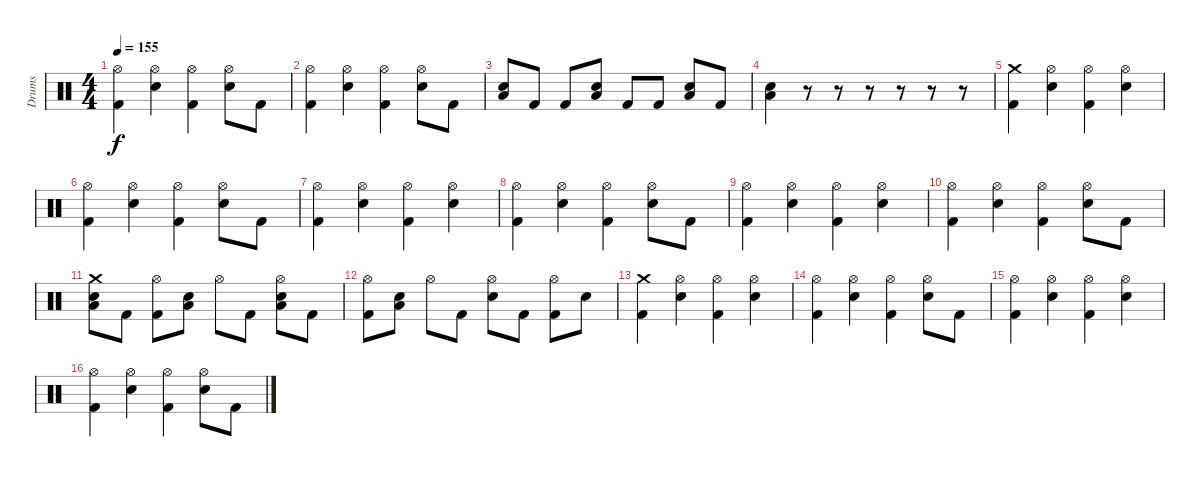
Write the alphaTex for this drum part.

\track ("Drums" "Drums") {instrument percussion}
\staff {score}
\articulation defaults
\ts (4 4)
\tempo 155
\clef neutral
\ks c
("Hi-Hat (open)" "Kick (hit) 2").4{dy f} ("Hi-Hat (open)" "Snare (hit) 2").4 ("Hi-Hat (open)" "Kick (hit) 2").4 ("Hi-Hat (open)" "Snare (hit) 2").8 "Kick (hit) 2".8 |
("Hi-Hat (open)" "Kick (hit) 2").4 ("Hi-Hat (open)" "Snare (hit) 2").4 ("Hi-Hat (open)" "Kick (hit) 2").4 ("Hi-Hat (open)" "Snare (hit) 2").8 "Kick (hit) 2".8 |
("Snare (hit) 2" "Low Floor Tom (hit)").8 "Kick (hit) 2".8 "Kick (hit) 2".8 ("Snare (hit) 2" "Low Floor Tom (hit)").8 "Kick (hit) 2".8 "Kick (hit) 2".8 ("Snare (hit) 2" "Low Floor Tom (hit)").8 "Kick (hit) 2".8 |
("Snare (hit) 2" "Low Floor Tom (hit)").4 r.8 r.8 r.8 r.8 r.8 r.8 |
("Crash medium (hit)" "Kick (hit) 2").4 ("Hi-Hat (open)" "Snare (hit) 2").4 ("Hi-Hat (open)" "Kick (hit) 2").4 ("Hi-Hat (open)" "Snare (hit) 2").4 |
("Hi-Hat (open)" "Kick (hit) 2").4 ("Hi-Hat (open)" "Snare (hit) 2").4 ("Hi-Hat (open)" "Kick (hit) 2").4 ("Hi-Hat (open)" "Snare (hit) 2").8 "Kick (hit) 2".8 |
("Hi-Hat (open)" "Kick (hit) 2").4 ("Hi-Hat (open)" "Snare (hit) 2").4 ("Hi-Hat (open)" "Kick (hit) 2").4 ("Hi-Hat (open)" "Snare (hit) 2").4 |
("Hi-Hat (open)" "Kick (hit) 2").4 ("Hi-Hat (open)" "Snare (hit) 2").4 ("Hi-Hat (open)" "Kick (hit) 2").4 ("Hi-Hat (open)" "Snare (hit) 2").8 "Kick (hit) 2".8 |
("Hi-Hat (open)" "Kick (hit) 2").4 ("Hi-Hat (open)" "Snare (hit) 2").4 ("Hi-Hat (open)" "Kick (hit) 2").4 ("Hi-Hat (open)" "Snare (hit) 2").4 |
("Hi-Hat (open)" "Kick (hit) 2").4 ("Hi-Hat (open)" "Snare (hit) 2").4 ("Hi-Hat (open)" "Kick (hit) 2").4 ("Hi-Hat (open)" "Snare (hit) 2").8 "Kick (hit) 2".8 |
("Crash medium (hit)" "Snare (hit) 2" "Low Floor Tom (hit)").8 "Kick (hit) 2".8 ("Hi-Hat (open)" "Kick (hit) 2").8 ("Snare (hit) 2" "Low Floor Tom (hit)").8 "Hi-Hat (open)".8 "Kick (hit) 2".8 ("Hi-Hat (open)" "Snare (hit) 2" "Low Floor Tom (hit)").8 "Kick (hit) 2".8 |
("Hi-Hat (open)" "Kick (hit) 2").8 ("Snare (hit) 2" "Low Floor Tom (hit)").8 "Hi-Hat (open)".8 "Kick (hit) 2".8 ("Hi-Hat (open)" "Snare (hit) 2").8 "Kick (hit) 2".8 ("Hi-Hat (open)" "Kick (hit) 2").8 "Snare (hit) 2".8 |
("Crash medium (hit)" "Kick (hit) 2").4 ("Hi-Hat (open)" "Snare (hit) 2").4 ("Hi-Hat (open)" "Kick (hit) 2").4 ("Hi-Hat (open)" "Snare (hit) 2").4 |
("Hi-Hat (open)" "Kick (hit) 2").4 ("Hi-Hat (open)" "Snare (hit) 2").4 ("Hi-Hat (open)" "Kick (hit) 2").4 ("Hi-Hat (open)" "Snare (hit) 2").8 "Kick (hit) 2".8 |
("Hi-Hat (open)" "Kick (hit) 2").4 ("Hi-Hat (open)" "Snare (hit) 2").4 ("Hi-Hat (open)" "Kick (hit) 2").4 ("Hi-Hat (open)" "Snare (hit) 2").4 |
("Hi-Hat (open)" "Kick (hit) 2").4 ("Hi-Hat (open)" "Snare (hit) 2").4 ("Hi-Hat (open)" "Kick (hit) 2").4 ("Hi-Hat (open)" "Snare (hit) 2").8 "Kick (hit) 2".8
